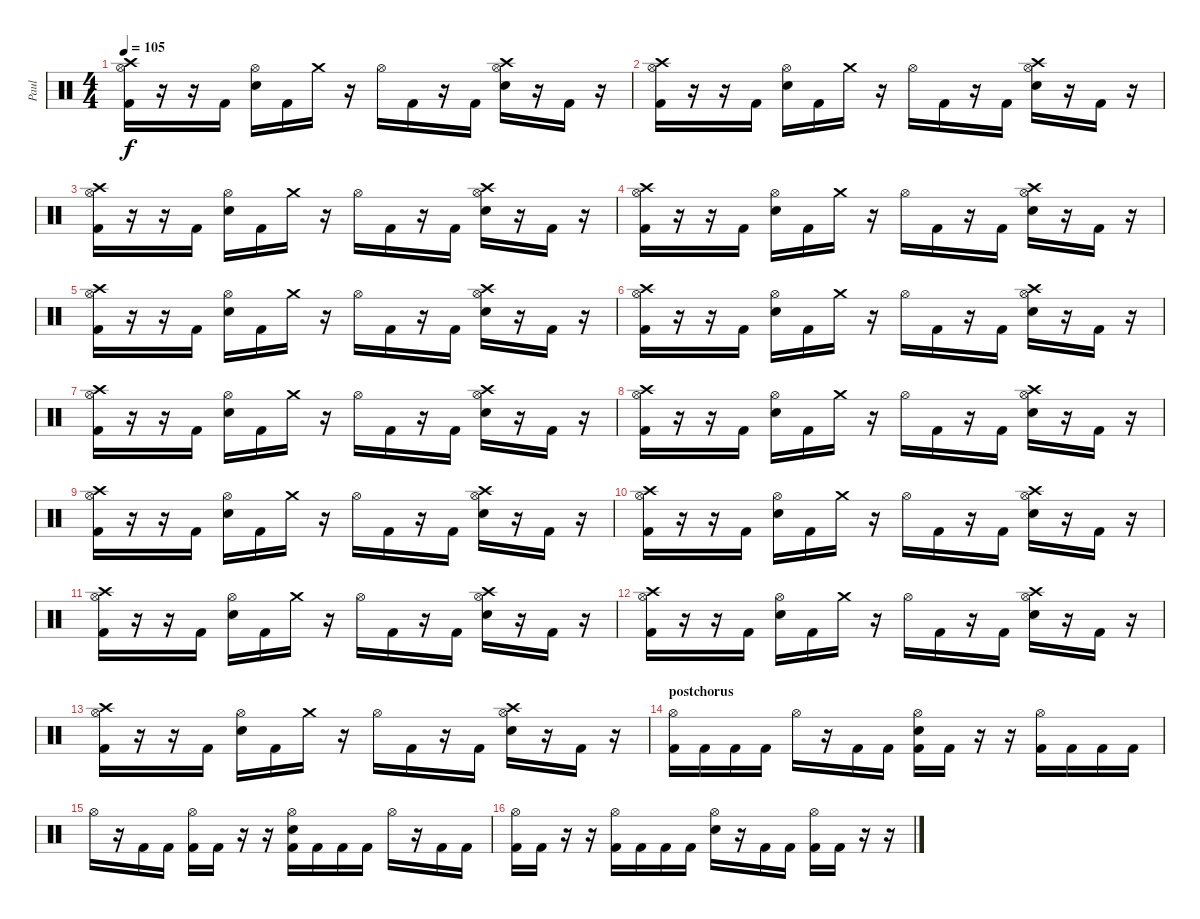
\track ("Paul" "Paul") {instrument percussion}
\staff {score}
\articulation defaults
\ts (4 4)
\tempo 105
\clef neutral
\ks c
("Crash high (hit)" "Hi-Hat (open)" "Kick (hit) 2").16{dy f} r.16 r.16 "Kick (hit) 2".16 ("Hi-Hat (open)" "Snare (hit) 2").16 "Kick (hit) 2".16 "Crash medium (hit)".16 r.16 "Hi-Hat (open)".16 "Kick (hit) 2".16 r.16 "Kick (hit) 2".16 ("Crash high (hit)" "Hi-Hat (open)" "Snare (hit) 2").16 r.16 "Kick (hit) 2".16 r.16 |
("Crash high (hit)" "Hi-Hat (open)" "Kick (hit) 2").16 r.16 r.16 "Kick (hit) 2".16 ("Hi-Hat (open)" "Snare (hit) 2").16 "Kick (hit) 2".16 "Crash medium (hit)".16 r.16 "Hi-Hat (open)".16 "Kick (hit) 2".16 r.16 "Kick (hit) 2".16 ("Crash high (hit)" "Hi-Hat (open)" "Snare (hit) 2").16 r.16 "Kick (hit) 2".16 r.16 |
("Crash high (hit)" "Hi-Hat (open)" "Kick (hit) 2").16 r.16 r.16 "Kick (hit) 2".16 ("Hi-Hat (open)" "Snare (hit) 2").16 "Kick (hit) 2".16 "Crash medium (hit)".16 r.16 "Hi-Hat (open)".16 "Kick (hit) 2".16 r.16 "Kick (hit) 2".16 ("Crash high (hit)" "Hi-Hat (open)" "Snare (hit) 2").16 r.16 "Kick (hit) 2".16 r.16 |
("Crash high (hit)" "Hi-Hat (open)" "Kick (hit) 2").16 r.16 r.16 "Kick (hit) 2".16 ("Hi-Hat (open)" "Snare (hit) 2").16 "Kick (hit) 2".16 "Crash medium (hit)".16 r.16 "Hi-Hat (open)".16 "Kick (hit) 2".16 r.16 "Kick (hit) 2".16 ("Crash high (hit)" "Hi-Hat (open)" "Snare (hit) 2").16 r.16 "Kick (hit) 2".16 r.16 |
("Crash high (hit)" "Hi-Hat (open)" "Kick (hit) 2").16 r.16 r.16 "Kick (hit) 2".16 ("Hi-Hat (open)" "Snare (hit) 2").16 "Kick (hit) 2".16 "Crash medium (hit)".16 r.16 "Hi-Hat (open)".16 "Kick (hit) 2".16 r.16 "Kick (hit) 2".16 ("Crash high (hit)" "Hi-Hat (open)" "Snare (hit) 2").16 r.16 "Kick (hit) 2".16 r.16 |
("Crash high (hit)" "Hi-Hat (open)" "Kick (hit) 2").16 r.16 r.16 "Kick (hit) 2".16 ("Hi-Hat (open)" "Snare (hit) 2").16 "Kick (hit) 2".16 "Crash medium (hit)".16 r.16 "Hi-Hat (open)".16 "Kick (hit) 2".16 r.16 "Kick (hit) 2".16 ("Crash high (hit)" "Hi-Hat (open)" "Snare (hit) 2").16 r.16 "Kick (hit) 2".16 r.16 |
("Crash high (hit)" "Hi-Hat (open)" "Kick (hit) 2").16 r.16 r.16 "Kick (hit) 2".16 ("Hi-Hat (open)" "Snare (hit) 2").16 "Kick (hit) 2".16 "Crash medium (hit)".16 r.16 "Hi-Hat (open)".16 "Kick (hit) 2".16 r.16 "Kick (hit) 2".16 ("Crash high (hit)" "Hi-Hat (open)" "Snare (hit) 2").16 r.16 "Kick (hit) 2".16 r.16 |
("Crash high (hit)" "Hi-Hat (open)" "Kick (hit) 2").16 r.16 r.16 "Kick (hit) 2".16 ("Hi-Hat (open)" "Snare (hit) 2").16 "Kick (hit) 2".16 "Crash medium (hit)".16 r.16 "Hi-Hat (open)".16 "Kick (hit) 2".16 r.16 "Kick (hit) 2".16 ("Crash high (hit)" "Hi-Hat (open)" "Snare (hit) 2").16 r.16 "Kick (hit) 2".16 r.16 |
("Crash high (hit)" "Hi-Hat (open)" "Kick (hit) 2").16 r.16 r.16 "Kick (hit) 2".16 ("Hi-Hat (open)" "Snare (hit) 2").16 "Kick (hit) 2".16 "Crash medium (hit)".16 r.16 "Hi-Hat (open)".16 "Kick (hit) 2".16 r.16 "Kick (hit) 2".16 ("Crash high (hit)" "Hi-Hat (open)" "Snare (hit) 2").16 r.16 "Kick (hit) 2".16 r.16 |
("Crash high (hit)" "Hi-Hat (open)" "Kick (hit) 2").16 r.16 r.16 "Kick (hit) 2".16 ("Hi-Hat (open)" "Snare (hit) 2").16 "Kick (hit) 2".16 "Crash medium (hit)".16 r.16 "Hi-Hat (open)".16 "Kick (hit) 2".16 r.16 "Kick (hit) 2".16 ("Crash high (hit)" "Hi-Hat (open)" "Snare (hit) 2").16 r.16 "Kick (hit) 2".16 r.16 |
("Crash high (hit)" "Hi-Hat (open)" "Kick (hit) 2").16 r.16 r.16 "Kick (hit) 2".16 ("Hi-Hat (open)" "Snare (hit) 2").16 "Kick (hit) 2".16 "Crash medium (hit)".16 r.16 "Hi-Hat (open)".16 "Kick (hit) 2".16 r.16 "Kick (hit) 2".16 ("Crash high (hit)" "Hi-Hat (open)" "Snare (hit) 2").16 r.16 "Kick (hit) 2".16 r.16 |
("Crash high (hit)" "Hi-Hat (open)" "Kick (hit) 2").16 r.16 r.16 "Kick (hit) 2".16 ("Hi-Hat (open)" "Snare (hit) 2").16 "Kick (hit) 2".16 "Crash medium (hit)".16 r.16 "Hi-Hat (open)".16 "Kick (hit) 2".16 r.16 "Kick (hit) 2".16 ("Crash high (hit)" "Hi-Hat (open)" "Snare (hit) 2").16 r.16 "Kick (hit) 2".16 r.16 |
("Crash high (hit)" "Hi-Hat (open)" "Kick (hit) 2").16 r.16 r.16 "Kick (hit) 2".16 ("Hi-Hat (open)" "Snare (hit) 2").16 "Kick (hit) 2".16 "Crash medium (hit)".16 r.16 "Hi-Hat (open)".16 "Kick (hit) 2".16 r.16 "Kick (hit) 2".16 ("Crash high (hit)" "Hi-Hat (open)" "Snare (hit) 2").16 r.16 "Kick (hit) 2".16 r.16 |
\section ("" "postchorus")
("Hi-Hat (open)" "Kick (hit) 2").16 "Kick (hit) 2".16 "Kick (hit) 2".16 "Kick (hit) 2".16 "Hi-Hat (open)".16 r.16 "Kick (hit) 2".16 "Kick (hit) 2".16 ("Hi-Hat (open)" "Snare (hit) 2" "Kick (hit) 2").16 "Kick (hit) 2".16 r.16 r.16 ("Hi-Hat (open)" "Kick (hit) 2").16 "Kick (hit) 2".16 "Kick (hit) 2".16 "Kick (hit) 2".16 |
"Hi-Hat (open)".16 r.16 "Kick (hit) 2".16 "Kick (hit) 2".16 ("Hi-Hat (open)" "Kick (hit) 2").16 "Kick (hit) 2".16 r.16 r.16 ("Hi-Hat (open)" "Snare (hit) 2" "Kick (hit) 2").16 "Kick (hit) 2".16 "Kick (hit) 2".16 "Kick (hit) 2".16 "Hi-Hat (open)".16 r.16 "Kick (hit) 2".16 "Kick (hit) 2".16 |
("Hi-Hat (open)" "Kick (hit) 2").16 "Kick (hit) 2".16 r.16 r.16 ("Hi-Hat (open)" "Kick (hit) 2").16 "Kick (hit) 2".16 "Kick (hit) 2".16 "Kick (hit) 2".16 ("Hi-Hat (open)" "Snare (hit) 2").16 r.16 "Kick (hit) 2".16 "Kick (hit) 2".16 ("Hi-Hat (open)" "Kick (hit) 2").16 "Kick (hit) 2".16 r.16 r.16
